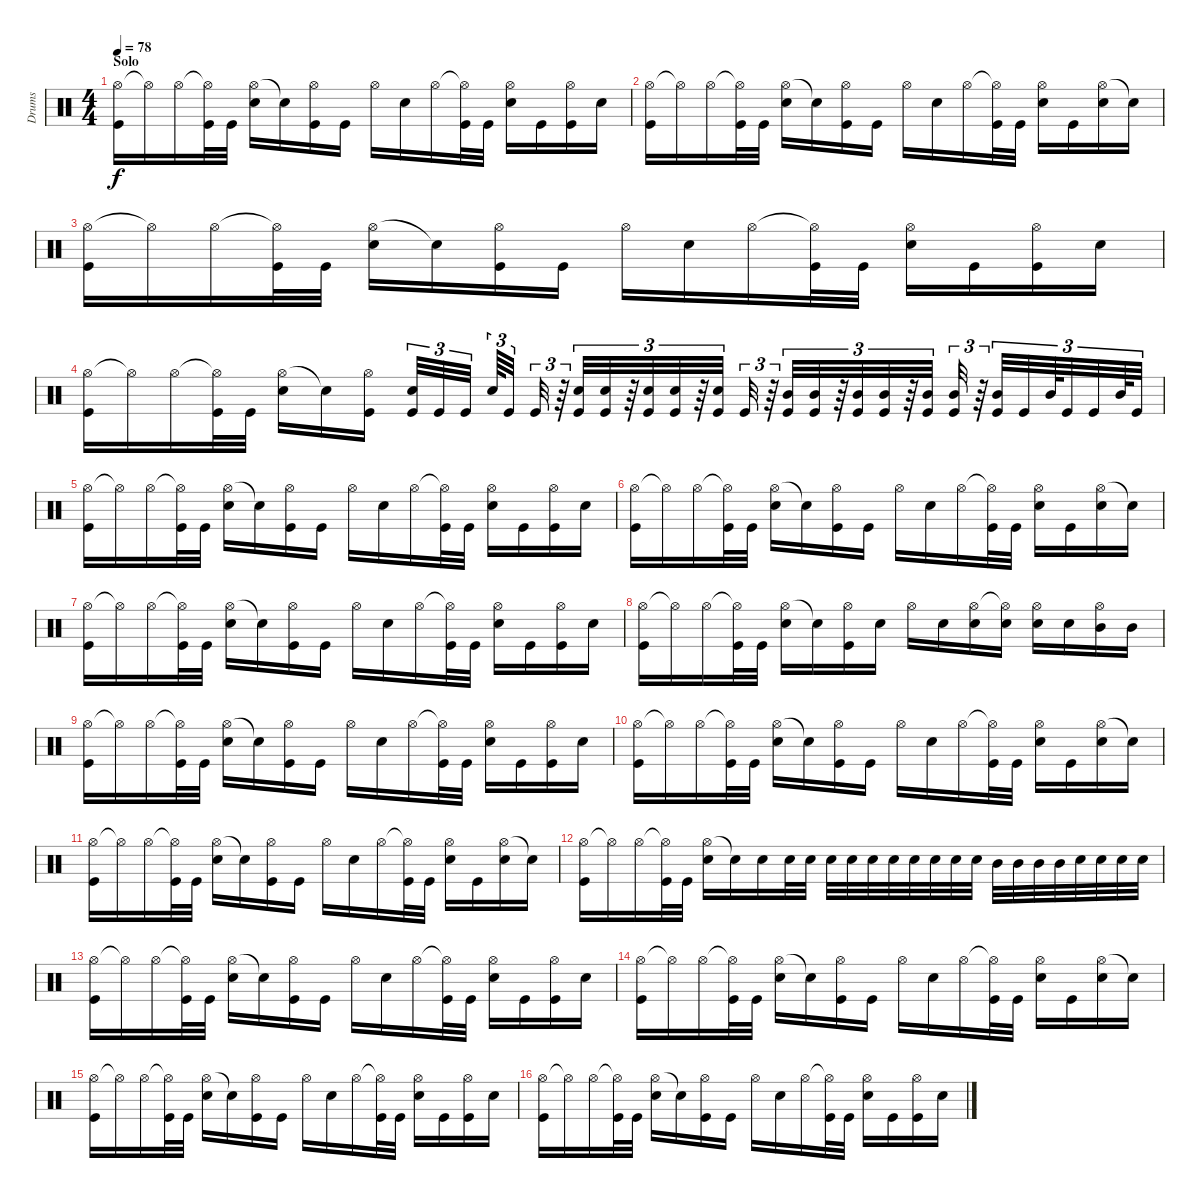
\track ("Drums" "Drums") {instrument percussion}
\staff {score}
\articulation defaults
\ts (4 4)
\section ("" "Solo")
\tempo 78
\clef neutral
\ks c
("Hi-Hat (open)" "Kick (hit)").16{dy f} "Hi-Hat (open)"{t}.16 "Hi-Hat (open)".16 ("Hi-Hat (open)"{t} "Kick (hit)").32 "Kick (hit)".32 ("Hi-Hat (open)" "Electric Snare (hit)").16 "Snare (hit)"{t}.16 ("Hi-Hat (open)" "Kick (hit)").16 "Kick (hit)".16 "Hi-Hat (open)".16 "Electric Snare (hit)".16 "Hi-Hat (open)".16 ("Hi-Hat (open)"{t} "Kick (hit)").32 "Kick (hit)".32 ("Hi-Hat (open)" "Electric Snare (hit)").16 "Kick (hit)".16 ("Hi-Hat (open)" "Kick (hit)").16 "Electric Snare (hit)".16 |
("Hi-Hat (open)" "Kick (hit)").16 "Hi-Hat (open)"{t}.16 "Hi-Hat (open)".16 ("Hi-Hat (open)"{t} "Kick (hit)").32 "Kick (hit)".32 ("Hi-Hat (open)" "Electric Snare (hit)").16 "Snare (hit)"{t}.16 ("Hi-Hat (open)" "Kick (hit)").16 "Kick (hit)".16 "Hi-Hat (open)".16 "Electric Snare (hit)".16 "Hi-Hat (open)".16 ("Hi-Hat (open)"{t} "Kick (hit)").32 "Kick (hit)".32 ("Hi-Hat (open)" "Electric Snare (hit)").16 "Kick (hit)".16 ("Hi-Hat (open)" "Electric Snare (hit)").16 "Snare (hit)"{t}.16 |
("Hi-Hat (open)" "Kick (hit)").16 "Hi-Hat (open)"{t}.16 "Hi-Hat (open)".16 ("Hi-Hat (open)"{t} "Kick (hit)").32 "Kick (hit)".32 ("Hi-Hat (open)" "Electric Snare (hit)").16 "Snare (hit)"{t}.16 ("Hi-Hat (open)" "Kick (hit)").16 "Kick (hit)".16 "Hi-Hat (open)".16 "Electric Snare (hit)".16 "Hi-Hat (open)".16 ("Hi-Hat (open)"{t} "Kick (hit)").32 "Kick (hit)".32 ("Hi-Hat (open)" "Electric Snare (hit)").16 "Kick (hit)".16 ("Hi-Hat (open)" "Kick (hit)").16 "Electric Snare (hit)".16 |
("Hi-Hat (open)" "Kick (hit)").16 "Hi-Hat (open)"{t}.16 "Hi-Hat (open)".16 ("Hi-Hat (open)"{t} "Kick (hit)").32 "Kick (hit)".32 ("Hi-Hat (open)" "Electric Snare (hit)").16 "Snare (hit)"{t}.16 ("Hi-Hat (open)" "Kick (hit)").16 ("Electric Snare (hit)" "Kick (hit)").32{tu (3 2)} "Kick (hit)".32{tu (3 2)} "Kick (hit)".32{tu (3 2)} "Electric Snare (hit)".64{tu (3 2)} "Kick (hit)".32{tu (3 2)} "Kick (hit)".32{tu (3 2)} r.64{tu (3 2)} ("Electric Snare (hit)" "Kick (hit)").32{tu (3 2)} ("Electric Snare (hit)" "Kick (hit)").32{tu (3 2)} r.64{tu (3 2)} ("Electric Snare (hit)" "Kick (hit)").32{tu (3 2)} ("Electric Snare (hit)" "Kick (hit)").32{tu (3 2)} r.64{tu (3 2)} ("Electric Snare (hit)" "Kick (hit)").32{tu (3 2)} "Kick (hit)".32{tu (3 2)} r.64{tu (3 2)} ("Mid Tom (hit)" "Kick (hit)").32{tu (3 2)} ("Mid Tom (hit)" "Kick (hit)").32{tu (3 2)} r.64{tu (3 2)} ("Mid Tom (hit)" "Kick (hit)").32{tu (3 2)} ("Mid Tom (hit)" "Kick (hit)").32{tu (3 2)} r.64{tu (3 2)} ("Mid Tom (hit)" "Kick (hit)").32{tu (3 2)} ("Mid Tom (hit)" "Kick (hit)").32{tu (3 2)} r.64{tu (3 2)} ("Mid Tom (hit)" "Kick (hit)").32{tu (3 2)} "Kick (hit)".32{tu (3 2)} "Mid Tom (hit)".64{tu (3 2)} "Kick (hit)".32{tu (3 2)} "Kick (hit)".32{tu (3 2)} "Mid Tom (hit)".64{tu (3 2)} "Kick (hit)".32{tu (3 2)} |
("Hi-Hat (open)" "Kick (hit)").16 "Hi-Hat (open)"{t}.16 "Hi-Hat (open)".16 ("Hi-Hat (open)"{t} "Kick (hit)").32 "Kick (hit)".32 ("Hi-Hat (open)" "Electric Snare (hit)").16 "Snare (hit)"{t}.16 ("Hi-Hat (open)" "Kick (hit)").16 "Kick (hit)".16 "Hi-Hat (open)".16 "Electric Snare (hit)".16 "Hi-Hat (open)".16 ("Hi-Hat (open)"{t} "Kick (hit)").32 "Kick (hit)".32 ("Hi-Hat (open)" "Electric Snare (hit)").16 "Kick (hit)".16 ("Hi-Hat (open)" "Kick (hit)").16 "Electric Snare (hit)".16 |
("Hi-Hat (open)" "Kick (hit)").16 "Hi-Hat (open)"{t}.16 "Hi-Hat (open)".16 ("Hi-Hat (open)"{t} "Kick (hit)").32 "Kick (hit)".32 ("Hi-Hat (open)" "Electric Snare (hit)").16 "Snare (hit)"{t}.16 ("Hi-Hat (open)" "Kick (hit)").16 "Kick (hit)".16 "Hi-Hat (open)".16 "Electric Snare (hit)".16 "Hi-Hat (open)".16 ("Hi-Hat (open)"{t} "Kick (hit)").32 "Kick (hit)".32 ("Hi-Hat (open)" "Electric Snare (hit)").16 "Kick (hit)".16 ("Hi-Hat (open)" "Electric Snare (hit)").16 "Snare (hit)"{t}.16 |
("Hi-Hat (open)" "Kick (hit)").16 "Hi-Hat (open)"{t}.16 "Hi-Hat (open)".16 ("Hi-Hat (open)"{t} "Kick (hit)").32 "Kick (hit)".32 ("Hi-Hat (open)" "Electric Snare (hit)").16 "Snare (hit)"{t}.16 ("Hi-Hat (open)" "Kick (hit)").16 "Kick (hit)".16 "Hi-Hat (open)".16 "Electric Snare (hit)".16 "Hi-Hat (open)".16 ("Hi-Hat (open)"{t} "Kick (hit)").32 "Kick (hit)".32 ("Hi-Hat (open)" "Electric Snare (hit)").16 "Kick (hit)".16 ("Hi-Hat (open)" "Kick (hit)").16 "Electric Snare (hit)".16 |
("Hi-Hat (open)" "Kick (hit)").16 "Hi-Hat (open)"{t}.16 "Hi-Hat (open)".16 ("Hi-Hat (open)"{t} "Kick (hit)").32 "Kick (hit)".32 ("Hi-Hat (open)" "Electric Snare (hit)").16 "Snare (hit)"{t}.16 ("Hi-Hat (open)" "Kick (hit)").16 "Electric Snare (hit)".16 "Hi-Hat (open)".16 "Electric Snare (hit)".16 ("Hi-Hat (open)" "Electric Snare (hit)").16 ("Hi-Hat (open)"{t} "Electric Snare (hit)").16 ("Hi-Hat (open)" "Electric Snare (hit)").16 "Electric Snare (hit)".16 ("Hi-Hat (open)" "Mid Tom (hit)").16 "Mid Tom (hit)".16 |
("Hi-Hat (open)" "Kick (hit)").16 "Hi-Hat (open)"{t}.16 "Hi-Hat (open)".16 ("Hi-Hat (open)"{t} "Kick (hit)").32 "Kick (hit)".32 ("Hi-Hat (open)" "Electric Snare (hit)").16 "Snare (hit)"{t}.16 ("Hi-Hat (open)" "Kick (hit)").16 "Kick (hit)".16 "Hi-Hat (open)".16 "Electric Snare (hit)".16 "Hi-Hat (open)".16 ("Hi-Hat (open)"{t} "Kick (hit)").32 "Kick (hit)".32 ("Hi-Hat (open)" "Electric Snare (hit)").16 "Kick (hit)".16 ("Hi-Hat (open)" "Kick (hit)").16 "Electric Snare (hit)".16 |
("Hi-Hat (open)" "Kick (hit)").16 "Hi-Hat (open)"{t}.16 "Hi-Hat (open)".16 ("Hi-Hat (open)"{t} "Kick (hit)").32 "Kick (hit)".32 ("Hi-Hat (open)" "Electric Snare (hit)").16 "Snare (hit)"{t}.16 ("Hi-Hat (open)" "Kick (hit)").16 "Kick (hit)".16 "Hi-Hat (open)".16 "Electric Snare (hit)".16 "Hi-Hat (open)".16 ("Hi-Hat (open)"{t} "Kick (hit)").32 "Kick (hit)".32 ("Hi-Hat (open)" "Electric Snare (hit)").16 "Kick (hit)".16 ("Hi-Hat (open)" "Electric Snare (hit)").16 "Snare (hit)"{t}.16 |
("Hi-Hat (open)" "Kick (hit)").16 "Hi-Hat (open)"{t}.16 "Hi-Hat (open)".16 ("Hi-Hat (open)"{t} "Kick (hit)").32 "Kick (hit)".32 ("Hi-Hat (open)" "Electric Snare (hit)").16 "Snare (hit)"{t}.16 ("Hi-Hat (open)" "Kick (hit)").16 "Kick (hit)".16 "Hi-Hat (open)".16 "Electric Snare (hit)".16 "Hi-Hat (open)".16 ("Hi-Hat (open)"{t} "Kick (hit)").32 "Kick (hit)".32 ("Hi-Hat (open)" "Electric Snare (hit)").16 "Kick (hit)".16 ("Hi-Hat (open)" "Electric Snare (hit)").16 "Snare (hit)"{t}.16 |
("Hi-Hat (open)" "Kick (hit)").16 "Hi-Hat (open)"{t}.16 "Hi-Hat (open)".16 ("Hi-Hat (open)"{t} "Kick (hit)").32 "Kick (hit)".32 ("Hi-Hat (open)" "Electric Snare (hit)").16 "Snare (hit)"{t}.16 "Electric Snare (hit)".16 "Electric Snare (hit)".32 "Electric Snare (hit)".32 "Electric Snare (hit)".32 "Electric Snare (hit)".32 "Electric Snare (hit)".32 "Electric Snare (hit)".32 "Electric Snare (hit)".32 "Electric Snare (hit)".32 "Electric Snare (hit)".32 "Electric Snare (hit)".32 "Mid Tom (hit)".32 "Mid Tom (hit)".32 "Mid Tom (hit)".32 "Mid Tom (hit)".32 "Electric Snare (hit)".32 "Electric Snare (hit)".32 "Electric Snare (hit)".32 "Electric Snare (hit)".32 |
("Hi-Hat (open)" "Kick (hit)").16 "Hi-Hat (open)"{t}.16 "Hi-Hat (open)".16 ("Hi-Hat (open)"{t} "Kick (hit)").32 "Kick (hit)".32 ("Hi-Hat (open)" "Electric Snare (hit)").16 "Snare (hit)"{t}.16 ("Hi-Hat (open)" "Kick (hit)").16 "Kick (hit)".16 "Hi-Hat (open)".16 "Electric Snare (hit)".16 "Hi-Hat (open)".16 ("Hi-Hat (open)"{t} "Kick (hit)").32 "Kick (hit)".32 ("Hi-Hat (open)" "Electric Snare (hit)").16 "Kick (hit)".16 ("Hi-Hat (open)" "Kick (hit)").16 "Electric Snare (hit)".16 |
("Hi-Hat (open)" "Kick (hit)").16 "Hi-Hat (open)"{t}.16 "Hi-Hat (open)".16 ("Hi-Hat (open)"{t} "Kick (hit)").32 "Kick (hit)".32 ("Hi-Hat (open)" "Electric Snare (hit)").16 "Snare (hit)"{t}.16 ("Hi-Hat (open)" "Kick (hit)").16 "Kick (hit)".16 "Hi-Hat (open)".16 "Electric Snare (hit)".16 "Hi-Hat (open)".16 ("Hi-Hat (open)"{t} "Kick (hit)").32 "Kick (hit)".32 ("Hi-Hat (open)" "Electric Snare (hit)").16 "Kick (hit)".16 ("Hi-Hat (open)" "Electric Snare (hit)").16 "Snare (hit)"{t}.16 |
("Hi-Hat (open)" "Kick (hit)").16 "Hi-Hat (open)"{t}.16 "Hi-Hat (open)".16 ("Hi-Hat (open)"{t} "Kick (hit)").32 "Kick (hit)".32 ("Hi-Hat (open)" "Electric Snare (hit)").16 "Snare (hit)"{t}.16 ("Hi-Hat (open)" "Kick (hit)").16 "Kick (hit)".16 "Hi-Hat (open)".16 "Electric Snare (hit)".16 "Hi-Hat (open)".16 ("Hi-Hat (open)"{t} "Kick (hit)").32 "Kick (hit)".32 ("Hi-Hat (open)" "Electric Snare (hit)").16 "Kick (hit)".16 ("Hi-Hat (open)" "Kick (hit)").16 "Electric Snare (hit)".16 |
("Hi-Hat (open)" "Kick (hit)").16 "Hi-Hat (open)"{t}.16 "Hi-Hat (open)".16 ("Hi-Hat (open)"{t} "Kick (hit)").32 "Kick (hit)".32 ("Hi-Hat (open)" "Electric Snare (hit)").16 "Snare (hit)"{t}.16 ("Hi-Hat (open)" "Kick (hit)").16 "Kick (hit)".16 "Hi-Hat (open)".16 "Electric Snare (hit)".16 "Hi-Hat (open)".16 ("Hi-Hat (open)"{t} "Kick (hit)").32 "Kick (hit)".32 ("Hi-Hat (open)" "Electric Snare (hit)").16 "Kick (hit)".16 ("Hi-Hat (open)" "Kick (hit)").16 "Electric Snare (hit)".16
